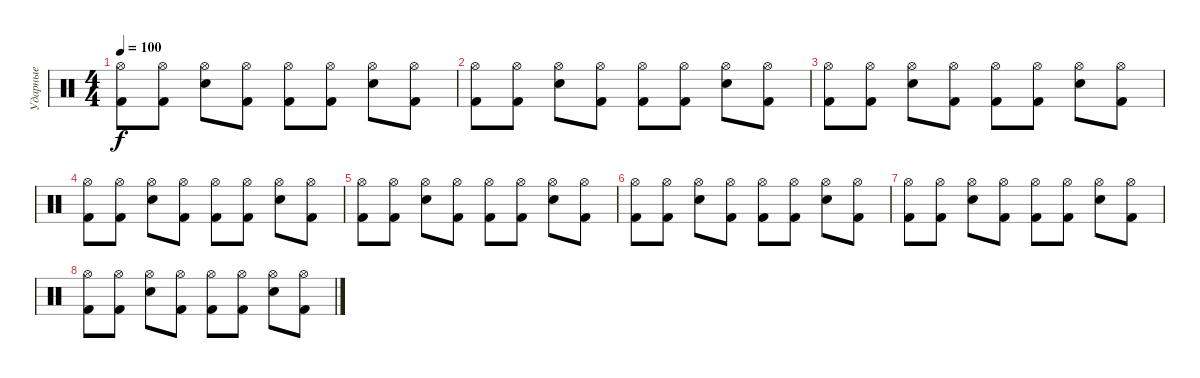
\track ("Ударные" "Ударные") {instrument percussion}
\staff {score}
\articulation defaults
\ts (4 4)
\tempo 100
\clef neutral
\ks c
("Hi-Hat (open)" "Kick (hit) 2").8{dy f} ("Hi-Hat (open)" "Kick (hit) 2").8 ("Hi-Hat (open)" "Snare (hit) 2").8 ("Hi-Hat (open)" "Kick (hit) 2").8 ("Hi-Hat (open)" "Kick (hit) 2").8 ("Hi-Hat (open)" "Kick (hit) 2").8 ("Hi-Hat (open)" "Snare (hit) 2").8 ("Hi-Hat (open)" "Kick (hit) 2").8 |
("Hi-Hat (open)" "Kick (hit) 2").8 ("Hi-Hat (open)" "Kick (hit) 2").8 ("Hi-Hat (open)" "Snare (hit) 2").8 ("Hi-Hat (open)" "Kick (hit) 2").8 ("Hi-Hat (open)" "Kick (hit) 2").8 ("Hi-Hat (open)" "Kick (hit) 2").8 ("Hi-Hat (open)" "Snare (hit) 2").8 ("Hi-Hat (open)" "Kick (hit) 2").8 |
("Hi-Hat (open)" "Kick (hit) 2").8 ("Hi-Hat (open)" "Kick (hit) 2").8 ("Hi-Hat (open)" "Snare (hit) 2").8 ("Hi-Hat (open)" "Kick (hit) 2").8 ("Hi-Hat (open)" "Kick (hit) 2").8 ("Hi-Hat (open)" "Kick (hit) 2").8 ("Hi-Hat (open)" "Snare (hit) 2").8 ("Hi-Hat (open)" "Kick (hit) 2").8 |
("Hi-Hat (open)" "Kick (hit) 2").8 ("Hi-Hat (open)" "Kick (hit) 2").8 ("Hi-Hat (open)" "Snare (hit) 2").8 ("Hi-Hat (open)" "Kick (hit) 2").8 ("Hi-Hat (open)" "Kick (hit) 2").8 ("Hi-Hat (open)" "Kick (hit) 2").8 ("Hi-Hat (open)" "Snare (hit) 2").8 ("Hi-Hat (open)" "Kick (hit) 2").8 |
("Hi-Hat (open)" "Kick (hit) 2").8 ("Hi-Hat (open)" "Kick (hit) 2").8 ("Hi-Hat (open)" "Snare (hit) 2").8 ("Hi-Hat (open)" "Kick (hit) 2").8 ("Hi-Hat (open)" "Kick (hit) 2").8 ("Hi-Hat (open)" "Kick (hit) 2").8 ("Hi-Hat (open)" "Snare (hit) 2").8 ("Hi-Hat (open)" "Kick (hit) 2").8 |
("Hi-Hat (open)" "Kick (hit) 2").8 ("Hi-Hat (open)" "Kick (hit) 2").8 ("Hi-Hat (open)" "Snare (hit) 2").8 ("Hi-Hat (open)" "Kick (hit) 2").8 ("Hi-Hat (open)" "Kick (hit) 2").8 ("Hi-Hat (open)" "Kick (hit) 2").8 ("Hi-Hat (open)" "Snare (hit) 2").8 ("Hi-Hat (open)" "Kick (hit) 2").8 |
("Hi-Hat (open)" "Kick (hit) 2").8 ("Hi-Hat (open)" "Kick (hit) 2").8 ("Hi-Hat (open)" "Snare (hit) 2").8 ("Hi-Hat (open)" "Kick (hit) 2").8 ("Hi-Hat (open)" "Kick (hit) 2").8 ("Hi-Hat (open)" "Kick (hit) 2").8 ("Hi-Hat (open)" "Snare (hit) 2").8 ("Hi-Hat (open)" "Kick (hit) 2").8 |
("Hi-Hat (open)" "Kick (hit) 2").8 ("Hi-Hat (open)" "Kick (hit) 2").8 ("Hi-Hat (open)" "Snare (hit) 2").8 ("Hi-Hat (open)" "Kick (hit) 2").8 ("Hi-Hat (open)" "Kick (hit) 2").8 ("Hi-Hat (open)" "Kick (hit) 2").8 ("Hi-Hat (open)" "Snare (hit) 2").8 ("Hi-Hat (open)" "Kick (hit) 2").8
